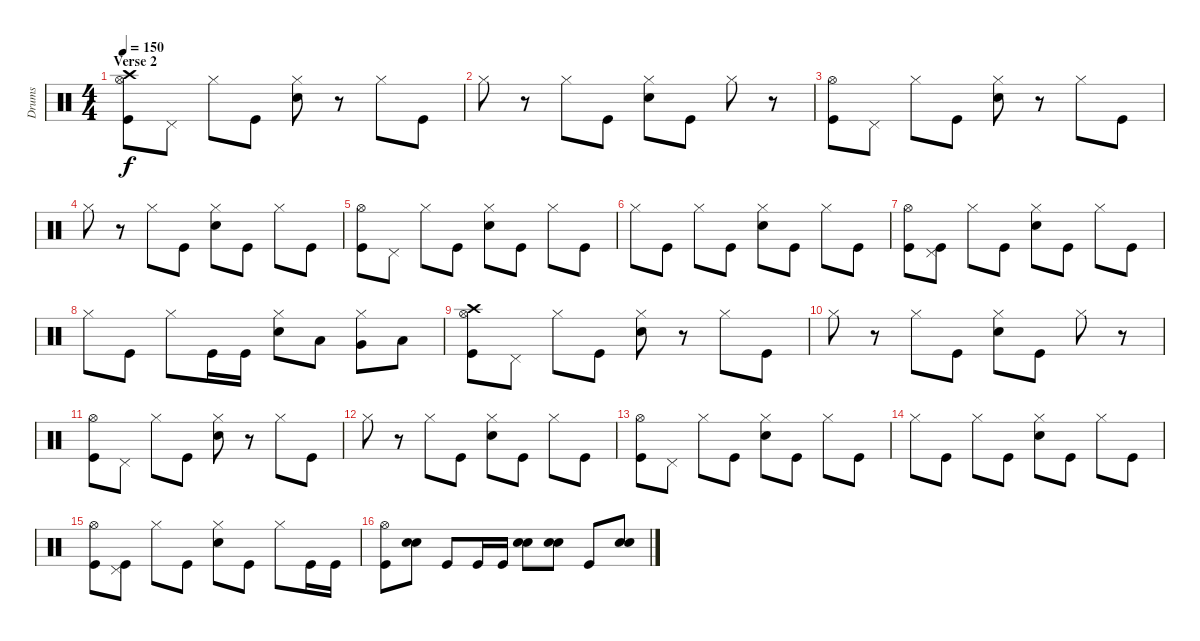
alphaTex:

\track ("Drums" "Drums") {instrument percussion}
\staff {score}
\articulation defaults
\ts (4 4)
\section ("" "Verse 2")
\tempo 150
\clef neutral
\ks c
("Kick (hit)" "Hi-Hat (open)" "Crash high (hit)").8{dy f} "Pedal Hi-Hat (hit)".8 "Hi-Hat (closed)".8 "Kick (hit)".8 ("Electric Snare (hit)" "Hi-Hat (closed)").8 r.8 "Hi-Hat (closed)".8 "Kick (hit)".8 |
"Hi-Hat (closed)".8 r.8 "Hi-Hat (closed)".8 "Kick (hit)".8 ("Electric Snare (hit)" "Hi-Hat (closed)").8 "Kick (hit)".8 "Hi-Hat (closed)".8 r.8 |
("Kick (hit)" "Hi-Hat (open)").8 "Pedal Hi-Hat (hit)".8 "Hi-Hat (closed)".8 "Kick (hit)".8 ("Electric Snare (hit)" "Hi-Hat (closed)").8 r.8 "Hi-Hat (closed)".8 "Kick (hit)".8 |
"Hi-Hat (closed)".8 r.8 "Hi-Hat (closed)".8 "Kick (hit)".8 ("Electric Snare (hit)" "Hi-Hat (closed)").8 "Kick (hit)".8 "Hi-Hat (closed)".8 "Kick (hit)".8 |
("Kick (hit)" "Hi-Hat (open)").8 "Pedal Hi-Hat (hit)".8 "Hi-Hat (closed)".8 "Kick (hit)".8 ("Electric Snare (hit)" "Hi-Hat (closed)").8 "Kick (hit)".8 "Hi-Hat (closed)".8 "Kick (hit)".8 |
"Hi-Hat (closed)".8 "Kick (hit)".8 "Hi-Hat (closed)".8 "Kick (hit)".8 ("Electric Snare (hit)" "Hi-Hat (closed)").8 "Kick (hit)".8 "Hi-Hat (closed)".8 "Kick (hit)".8 |
("Kick (hit)" "Hi-Hat (open)").8 ("Kick (hit)" "Pedal Hi-Hat (hit)").8 "Hi-Hat (closed)".8 "Kick (hit)".8 ("Electric Snare (hit)" "Hi-Hat (closed)").8 "Kick (hit)".8 "Hi-Hat (closed)".8 "Kick (hit)".8 |
"Hi-Hat (closed)".8 "Kick (hit)".8 "Hi-Hat (closed)".8 "Kick (hit)".16 "Kick (hit)".16 ("Electric Snare (hit)" "Hi-Hat (closed)").8 "Low Tom (hit)".8 ("Very Low Tom (hit)" "Hi-Hat (closed)").8 "Low Floor Tom (hit)".8 |
("Kick (hit)" "Hi-Hat (open)" "Crash high (hit)").8 "Pedal Hi-Hat (hit)".8 "Hi-Hat (closed)".8 "Kick (hit)".8 ("Electric Snare (hit)" "Hi-Hat (closed)").8 r.8 "Hi-Hat (closed)".8 "Kick (hit)".8 |
"Hi-Hat (closed)".8 r.8 "Hi-Hat (closed)".8 "Kick (hit)".8 ("Electric Snare (hit)" "Hi-Hat (closed)").8 "Kick (hit)".8 "Hi-Hat (closed)".8 r.8 |
("Kick (hit)" "Hi-Hat (open)").8 "Pedal Hi-Hat (hit)".8 "Hi-Hat (closed)".8 "Kick (hit)".8 ("Electric Snare (hit)" "Hi-Hat (closed)").8 r.8 "Hi-Hat (closed)".8 "Kick (hit)".8 |
"Hi-Hat (closed)".8 r.8 "Hi-Hat (closed)".8 "Kick (hit)".8 ("Electric Snare (hit)" "Hi-Hat (closed)").8 "Kick (hit)".8 "Hi-Hat (closed)".8 "Kick (hit)".8 |
("Kick (hit)" "Hi-Hat (open)").8 "Pedal Hi-Hat (hit)".8 "Hi-Hat (closed)".8 "Kick (hit)".8 ("Electric Snare (hit)" "Hi-Hat (closed)").8 "Kick (hit)".8 "Hi-Hat (closed)".8 "Kick (hit)".8 |
"Hi-Hat (closed)".8 "Kick (hit)".8 "Hi-Hat (closed)".8 "Kick (hit)".8 ("Electric Snare (hit)" "Hi-Hat (closed)").8 "Kick (hit)".8 "Hi-Hat (closed)".8 "Kick (hit)".8 |
("Kick (hit)" "Hi-Hat (open)").8 ("Kick (hit)" "Pedal Hi-Hat (hit)").8 "Hi-Hat (closed)".8 "Kick (hit)".8 ("Electric Snare (hit)" "Hi-Hat (closed)").8 "Kick (hit)".8 "Hi-Hat (closed)".8 "Kick (hit)".16 "Kick (hit)".16 |
("Kick (hit)" "Hi-Hat (open)").8 ("Electric Snare (hit)" "Electric Snare (hit)").8 "Kick (hit)".8 "Kick (hit)".16 "Kick (hit)".16 ("Electric Snare (hit)" "Electric Snare (hit)").8 ("Electric Snare (hit)" "Electric Snare (hit)").8 "Kick (hit)".8 ("Electric Snare (hit)" "Electric Snare (hit)").8
